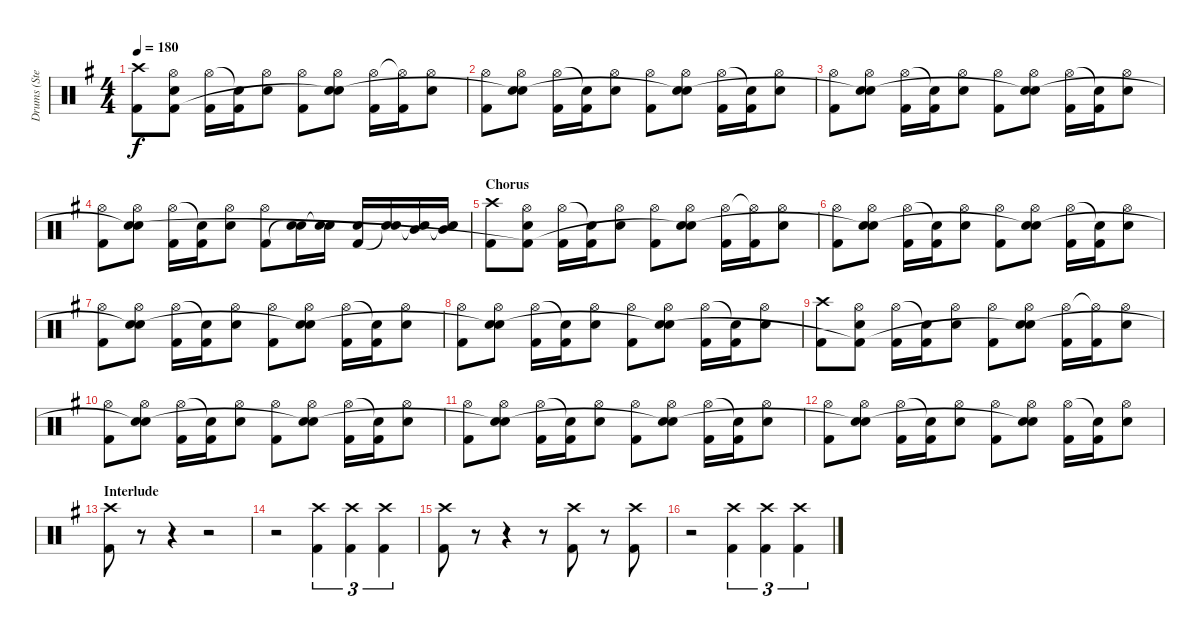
\track ("Drums (Stevo)" "Drums (Ste") {instrument percussion}
\staff {score}
\articulation defaults
\ts (4 4)
\tempo 180
\clef neutral
\ks g
("Crash high (hit)" "Kick (hit) 2").8{dy f} ("Hi-Hat (open)" "Snare (hit) 2" "Kick (hit) 2"{t}).8 ("Hi-Hat (open)" "Kick (hit) 2").16 ("Snare (hit)"{t} "Kick (hit) 2").16 ("Hi-Hat (open)" "Snare (hit) 2").8 ("Hi-Hat (open)" "Kick (hit) 2").8 ("Hi-Hat (open)" "Snare (hit) 2" "Snare (hit)"{t}).8 ("Hi-Hat (open)" "Kick (hit) 2").16 ("Hi-Hat (open)"{t} "Kick (hit) 2").16 ("Hi-Hat (open)" "Snare (hit) 2").8 |
("Hi-Hat (open)" "Kick (hit) 2").8 ("Hi-Hat (open)" "Snare (hit) 2" "Snare (hit)"{t}).8 ("Hi-Hat (open)" "Kick (hit) 2").16 ("Snare (hit)"{t} "Kick (hit) 2").16 ("Hi-Hat (open)" "Snare (hit) 2").8 ("Hi-Hat (open)" "Kick (hit) 2").8 ("Hi-Hat (open)" "Snare (hit) 2" "Snare (hit)"{t}).8 ("Hi-Hat (open)" "Kick (hit) 2").16 ("Snare (hit)"{t} "Kick (hit) 2").16 ("Hi-Hat (open)" "Snare (hit) 2").8 |
("Hi-Hat (open)" "Kick (hit) 2").8 ("Hi-Hat (open)" "Snare (hit) 2" "Snare (hit)"{t}).8 ("Hi-Hat (open)" "Kick (hit) 2").16 ("Snare (hit)"{t} "Kick (hit) 2").16 ("Hi-Hat (open)" "Snare (hit) 2").8 ("Hi-Hat (open)" "Kick (hit) 2").8 ("Hi-Hat (open)" "Snare (hit) 2" "Snare (hit)"{t}).8 ("Hi-Hat (open)" "Kick (hit) 2").16 ("Snare (hit)"{t} "Kick (hit) 2").16 ("Hi-Hat (open)" "Snare (hit) 2").8 |
("Hi-Hat (open)" "Kick (hit) 2").8 ("Hi-Hat (open)" "Snare (hit) 2" "Snare (hit)"{t}).8 ("Hi-Hat (open)" "Kick (hit) 2").16 ("Snare (hit)"{t} "Kick (hit) 2").16 ("Hi-Hat (open)" "Snare (hit) 2").8 ("Hi-Hat (open)" "Kick (hit) 2").8 ("Snare (hit) 2" "Snare (hit)"{t}).16 ("Snare (hit) 2" "Snare (hit)"{t}).16 ("Snare (hit) 2" "Kick (hit) 2").16 ("Snare (hit) 2" "Snare (hit)"{t}).16 ("Mid Tom (hit)" "Snare (hit)"{t}).16 ("Mid Tom (hit)" "Snare (hit)"{t}).16 |
\section ("" "Chorus")
("Crash high (hit)" "Kick (hit) 2").8 ("Hi-Hat (open)" "Snare (hit) 2" "Kick (hit) 2"{t}).8 ("Hi-Hat (open)" "Kick (hit) 2").16 ("Snare (hit)"{t} "Kick (hit) 2").16 ("Hi-Hat (open)" "Snare (hit) 2").8 ("Hi-Hat (open)" "Kick (hit) 2").8 ("Hi-Hat (open)" "Snare (hit) 2" "Snare (hit)"{t}).8 ("Hi-Hat (open)" "Kick (hit) 2").16 ("Hi-Hat (open)"{t} "Kick (hit) 2").16 ("Hi-Hat (open)" "Snare (hit) 2").8 |
("Hi-Hat (open)" "Kick (hit) 2").8 ("Hi-Hat (open)" "Snare (hit) 2" "Snare (hit)"{t}).8 ("Hi-Hat (open)" "Kick (hit) 2").16 ("Snare (hit)"{t} "Kick (hit) 2").16 ("Hi-Hat (open)" "Snare (hit) 2").8 ("Hi-Hat (open)" "Kick (hit) 2").8 ("Hi-Hat (open)" "Snare (hit) 2" "Snare (hit)"{t}).8 ("Hi-Hat (open)" "Kick (hit) 2").16 ("Snare (hit)"{t} "Kick (hit) 2").16 ("Hi-Hat (open)" "Snare (hit) 2").8 |
("Hi-Hat (open)" "Kick (hit) 2").8 ("Hi-Hat (open)" "Snare (hit) 2" "Snare (hit)"{t}).8 ("Hi-Hat (open)" "Kick (hit) 2").16 ("Snare (hit)"{t} "Kick (hit) 2").16 ("Hi-Hat (open)" "Snare (hit) 2").8 ("Hi-Hat (open)" "Kick (hit) 2").8 ("Hi-Hat (open)" "Snare (hit) 2" "Snare (hit)"{t}).8 ("Hi-Hat (open)" "Kick (hit) 2").16 ("Snare (hit)"{t} "Kick (hit) 2").16 ("Hi-Hat (open)" "Snare (hit) 2").8 |
("Hi-Hat (open)" "Kick (hit) 2").8 ("Hi-Hat (open)" "Snare (hit) 2" "Snare (hit)"{t}).8 ("Hi-Hat (open)" "Kick (hit) 2").16 ("Snare (hit)"{t} "Kick (hit) 2").16 ("Hi-Hat (open)" "Snare (hit) 2").8 ("Hi-Hat (open)" "Kick (hit) 2").8 ("Hi-Hat (open)" "Snare (hit) 2" "Snare (hit)"{t}).8 ("Hi-Hat (open)" "Kick (hit) 2").16 ("Snare (hit)"{t} "Kick (hit) 2").16 ("Hi-Hat (open)" "Snare (hit) 2").8 |
("Crash high (hit)" "Kick (hit) 2").8 ("Hi-Hat (open)" "Snare (hit) 2" "Kick (hit) 2"{t}).8 ("Hi-Hat (open)" "Kick (hit) 2").16 ("Snare (hit)"{t} "Kick (hit) 2").16 ("Hi-Hat (open)" "Snare (hit) 2").8 ("Hi-Hat (open)" "Kick (hit) 2").8 ("Hi-Hat (open)" "Snare (hit) 2" "Snare (hit)"{t}).8 ("Hi-Hat (open)" "Kick (hit) 2").16 ("Hi-Hat (open)"{t} "Kick (hit) 2").16 ("Hi-Hat (open)" "Snare (hit) 2").8 |
("Hi-Hat (open)" "Kick (hit) 2").8 ("Hi-Hat (open)" "Snare (hit) 2" "Snare (hit)"{t}).8 ("Hi-Hat (open)" "Kick (hit) 2").16 ("Snare (hit)"{t} "Kick (hit) 2").16 ("Hi-Hat (open)" "Snare (hit) 2").8 ("Hi-Hat (open)" "Kick (hit) 2").8 ("Hi-Hat (open)" "Snare (hit) 2" "Snare (hit)"{t}).8 ("Hi-Hat (open)" "Kick (hit) 2").16 ("Snare (hit)"{t} "Kick (hit) 2").16 ("Hi-Hat (open)" "Snare (hit) 2").8 |
("Hi-Hat (open)" "Kick (hit) 2").8 ("Hi-Hat (open)" "Snare (hit) 2" "Snare (hit)"{t}).8 ("Hi-Hat (open)" "Kick (hit) 2").16 ("Snare (hit)"{t} "Kick (hit) 2").16 ("Hi-Hat (open)" "Snare (hit) 2").8 ("Hi-Hat (open)" "Kick (hit) 2").8 ("Hi-Hat (open)" "Snare (hit) 2" "Snare (hit)"{t}).8 ("Hi-Hat (open)" "Kick (hit) 2").16 ("Snare (hit)"{t} "Kick (hit) 2").16 ("Hi-Hat (open)" "Snare (hit) 2").8 |
("Hi-Hat (open)" "Kick (hit) 2").8 ("Hi-Hat (open)" "Snare (hit) 2" "Snare (hit)"{t}).8 ("Hi-Hat (open)" "Kick (hit) 2").16 ("Snare (hit)"{t} "Kick (hit) 2").16 ("Hi-Hat (open)" "Snare (hit) 2").8 ("Hi-Hat (open)" "Kick (hit) 2").8 ("Hi-Hat (open)" "Snare (hit) 2" "Snare (hit)"{t}).8 ("Hi-Hat (open)" "Kick (hit) 2").16 ("Snare (hit)"{t} "Kick (hit) 2").16 ("Hi-Hat (open)" "Snare (hit) 2").8 |
\section ("" "Interlude")
("Crash high (hit)" "Kick (hit) 2").8 r.8 r.4 r.2 |
r.2 ("Crash high (hit)" "Kick (hit) 2").4{tu (3 2)} ("Crash high (hit)" "Kick (hit) 2").4{tu (3 2)} ("Crash high (hit)" "Kick (hit) 2").4{tu (3 2)} |
("Crash high (hit)" "Kick (hit) 2").8 r.8 r.4 r.8 ("Crash high (hit)" "Kick (hit) 2").8 r.8 ("Crash high (hit)" "Kick (hit) 2").8 |
r.2 ("Crash high (hit)" "Kick (hit) 2").4{tu (3 2)} ("Crash high (hit)" "Kick (hit) 2").4{tu (3 2)} ("Crash high (hit)" "Kick (hit) 2").4{tu (3 2)}
